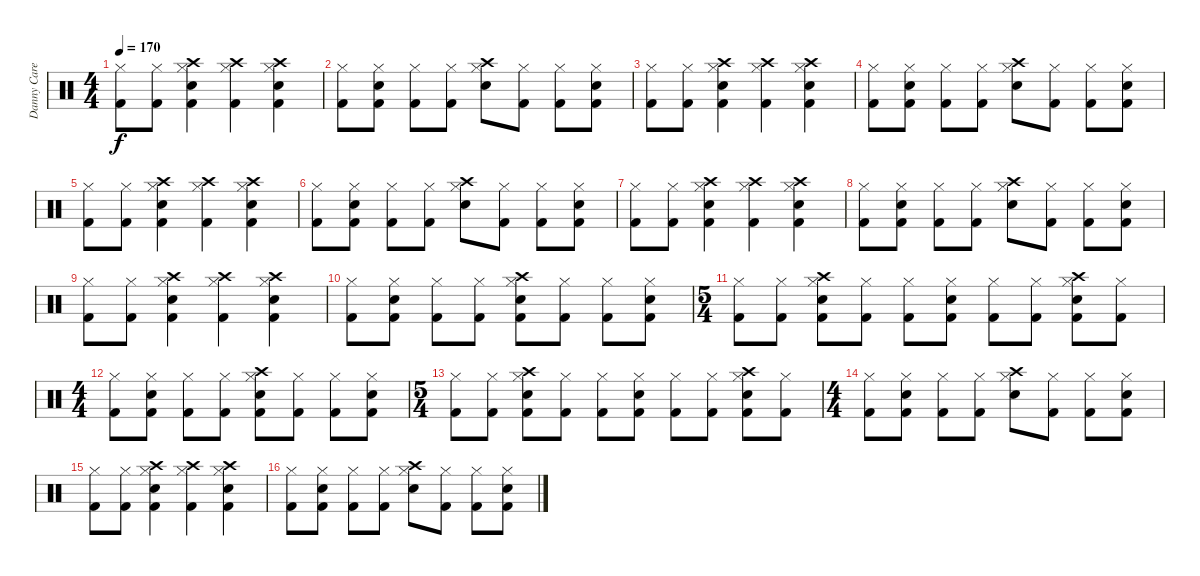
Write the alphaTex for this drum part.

\track ("Danny Carey" "Danny Care") {instrument percussion}
\staff {score}
\articulation defaults
\ts (4 4)
\tempo 170
\clef neutral
\ks c
("Hi-Hat (closed)" "Kick (hit) 2").8{dy f} ("Hi-Hat (closed)" "Kick (hit) 2").8 ("Crash high (hit)" "Hi-Hat (closed)" "Snare (hit) 2" "Kick (hit) 2").4 ("Crash high (hit)" "Hi-Hat (closed)" "Kick (hit) 2").4 ("Crash high (hit)" "Hi-Hat (closed)" "Snare (hit) 2" "Kick (hit) 2").4 |
("Hi-Hat (closed)" "Kick (hit) 2").8 ("Hi-Hat (closed)" "Snare (hit) 2" "Kick (hit) 2").8 ("Hi-Hat (closed)" "Kick (hit) 2").8 ("Hi-Hat (closed)" "Kick (hit) 2").8 ("Crash high (hit)" "Hi-Hat (closed)" "Snare (hit) 2").8 ("Hi-Hat (closed)" "Kick (hit) 2").8 ("Hi-Hat (closed)" "Kick (hit) 2").8 ("Hi-Hat (closed)" "Snare (hit) 2" "Kick (hit) 2").8 |
("Hi-Hat (closed)" "Kick (hit) 2").8 ("Hi-Hat (closed)" "Kick (hit) 2").8 ("Crash high (hit)" "Hi-Hat (closed)" "Snare (hit) 2" "Kick (hit) 2").4 ("Crash high (hit)" "Hi-Hat (closed)" "Kick (hit) 2").4 ("Crash high (hit)" "Hi-Hat (closed)" "Snare (hit) 2" "Kick (hit) 2").4 |
("Hi-Hat (closed)" "Kick (hit) 2").8 ("Hi-Hat (closed)" "Snare (hit) 2" "Kick (hit) 2").8 ("Hi-Hat (closed)" "Kick (hit) 2").8 ("Hi-Hat (closed)" "Kick (hit) 2").8 ("Crash high (hit)" "Hi-Hat (closed)" "Snare (hit) 2").8 ("Hi-Hat (closed)" "Kick (hit) 2").8 ("Hi-Hat (closed)" "Kick (hit) 2").8 ("Hi-Hat (closed)" "Snare (hit) 2" "Kick (hit) 2").8 |
("Hi-Hat (closed)" "Kick (hit) 2").8 ("Hi-Hat (closed)" "Kick (hit) 2").8 ("Crash high (hit)" "Hi-Hat (closed)" "Snare (hit) 2" "Kick (hit) 2").4 ("Crash high (hit)" "Hi-Hat (closed)" "Kick (hit) 2").4 ("Crash high (hit)" "Hi-Hat (closed)" "Snare (hit) 2" "Kick (hit) 2").4 |
("Hi-Hat (closed)" "Kick (hit) 2").8 ("Hi-Hat (closed)" "Snare (hit) 2" "Kick (hit) 2").8 ("Hi-Hat (closed)" "Kick (hit) 2").8 ("Hi-Hat (closed)" "Kick (hit) 2").8 ("Crash high (hit)" "Hi-Hat (closed)" "Snare (hit) 2").8 ("Hi-Hat (closed)" "Kick (hit) 2").8 ("Hi-Hat (closed)" "Kick (hit) 2").8 ("Hi-Hat (closed)" "Snare (hit) 2" "Kick (hit) 2").8 |
("Hi-Hat (closed)" "Kick (hit) 2").8 ("Hi-Hat (closed)" "Kick (hit) 2").8 ("Crash high (hit)" "Hi-Hat (closed)" "Snare (hit) 2" "Kick (hit) 2").4 ("Crash high (hit)" "Hi-Hat (closed)" "Kick (hit) 2").4 ("Crash high (hit)" "Hi-Hat (closed)" "Snare (hit) 2" "Kick (hit) 2").4 |
("Hi-Hat (closed)" "Kick (hit) 2").8 ("Hi-Hat (closed)" "Snare (hit) 2" "Kick (hit) 2").8 ("Hi-Hat (closed)" "Kick (hit) 2").8 ("Hi-Hat (closed)" "Kick (hit) 2").8 ("Crash high (hit)" "Hi-Hat (closed)" "Snare (hit) 2").8 ("Hi-Hat (closed)" "Kick (hit) 2").8 ("Hi-Hat (closed)" "Kick (hit) 2").8 ("Hi-Hat (closed)" "Snare (hit) 2" "Kick (hit) 2").8 |
("Hi-Hat (closed)" "Kick (hit) 2").8 ("Hi-Hat (closed)" "Kick (hit) 2").8 ("Crash high (hit)" "Hi-Hat (closed)" "Snare (hit) 2" "Kick (hit) 2").4 ("Crash high (hit)" "Hi-Hat (closed)" "Kick (hit) 2").4 ("Crash high (hit)" "Hi-Hat (closed)" "Snare (hit) 2" "Kick (hit) 2").4 |
("Hi-Hat (closed)" "Kick (hit) 2").8 ("Hi-Hat (closed)" "Snare (hit) 2" "Kick (hit) 2").8 ("Hi-Hat (closed)" "Kick (hit) 2").8 ("Hi-Hat (closed)" "Kick (hit) 2").8 ("Crash high (hit)" "Hi-Hat (closed)" "Snare (hit) 2" "Kick (hit) 2").8 ("Hi-Hat (closed)" "Kick (hit) 2").8 ("Hi-Hat (closed)" "Kick (hit) 2").8 ("Hi-Hat (closed)" "Snare (hit) 2" "Kick (hit) 2").8 |
\ts (5 4)
("Hi-Hat (closed)" "Kick (hit) 2").8 ("Hi-Hat (closed)" "Kick (hit) 2").8 ("Crash high (hit)" "Hi-Hat (closed)" "Snare (hit) 2" "Kick (hit) 2").8 ("Hi-Hat (closed)" "Kick (hit) 2").8 ("Hi-Hat (closed)" "Kick (hit) 2").8 ("Hi-Hat (closed)" "Snare (hit) 2" "Kick (hit) 2").8 ("Hi-Hat (closed)" "Kick (hit) 2").8 ("Hi-Hat (closed)" "Kick (hit) 2").8 ("Crash high (hit)" "Hi-Hat (closed)" "Snare (hit) 2" "Kick (hit) 2").8 ("Hi-Hat (closed)" "Kick (hit) 2").8 |
\ts (4 4)
("Hi-Hat (closed)" "Kick (hit) 2").8 ("Hi-Hat (closed)" "Snare (hit) 2" "Kick (hit) 2").8 ("Hi-Hat (closed)" "Kick (hit) 2").8 ("Hi-Hat (closed)" "Kick (hit) 2").8 ("Crash high (hit)" "Hi-Hat (closed)" "Snare (hit) 2" "Kick (hit) 2").8 ("Hi-Hat (closed)" "Kick (hit) 2").8 ("Hi-Hat (closed)" "Kick (hit) 2").8 ("Hi-Hat (closed)" "Snare (hit) 2" "Kick (hit) 2").8 |
\ts (5 4)
("Hi-Hat (closed)" "Kick (hit) 2").8 ("Hi-Hat (closed)" "Kick (hit) 2").8 ("Crash high (hit)" "Hi-Hat (closed)" "Snare (hit) 2" "Kick (hit) 2").8 ("Hi-Hat (closed)" "Kick (hit) 2").8 ("Hi-Hat (closed)" "Kick (hit) 2").8 ("Hi-Hat (closed)" "Snare (hit) 2" "Kick (hit) 2").8 ("Hi-Hat (closed)" "Kick (hit) 2").8 ("Hi-Hat (closed)" "Kick (hit) 2").8 ("Crash high (hit)" "Hi-Hat (closed)" "Snare (hit) 2" "Kick (hit) 2").8 ("Hi-Hat (closed)" "Kick (hit) 2").8 |
\ts (4 4)
("Hi-Hat (closed)" "Kick (hit) 2").8 ("Hi-Hat (closed)" "Snare (hit) 2" "Kick (hit) 2").8 ("Hi-Hat (closed)" "Kick (hit) 2").8 ("Hi-Hat (closed)" "Kick (hit) 2").8 ("Crash high (hit)" "Hi-Hat (closed)" "Snare (hit) 2").8 ("Hi-Hat (closed)" "Kick (hit) 2").8 ("Hi-Hat (closed)" "Kick (hit) 2").8 ("Hi-Hat (closed)" "Snare (hit) 2" "Kick (hit) 2").8 |
("Hi-Hat (closed)" "Kick (hit) 2").8 ("Hi-Hat (closed)" "Kick (hit) 2").8 ("Crash high (hit)" "Hi-Hat (closed)" "Snare (hit) 2" "Kick (hit) 2").4 ("Crash high (hit)" "Hi-Hat (closed)" "Kick (hit) 2").4 ("Crash high (hit)" "Hi-Hat (closed)" "Snare (hit) 2" "Kick (hit) 2").4 |
("Hi-Hat (closed)" "Kick (hit) 2").8 ("Hi-Hat (closed)" "Snare (hit) 2" "Kick (hit) 2").8 ("Hi-Hat (closed)" "Kick (hit) 2").8 ("Hi-Hat (closed)" "Kick (hit) 2").8 ("Crash high (hit)" "Hi-Hat (closed)" "Snare (hit) 2").8 ("Hi-Hat (closed)" "Kick (hit) 2").8 ("Hi-Hat (closed)" "Kick (hit) 2").8 ("Hi-Hat (closed)" "Snare (hit) 2" "Kick (hit) 2").8
